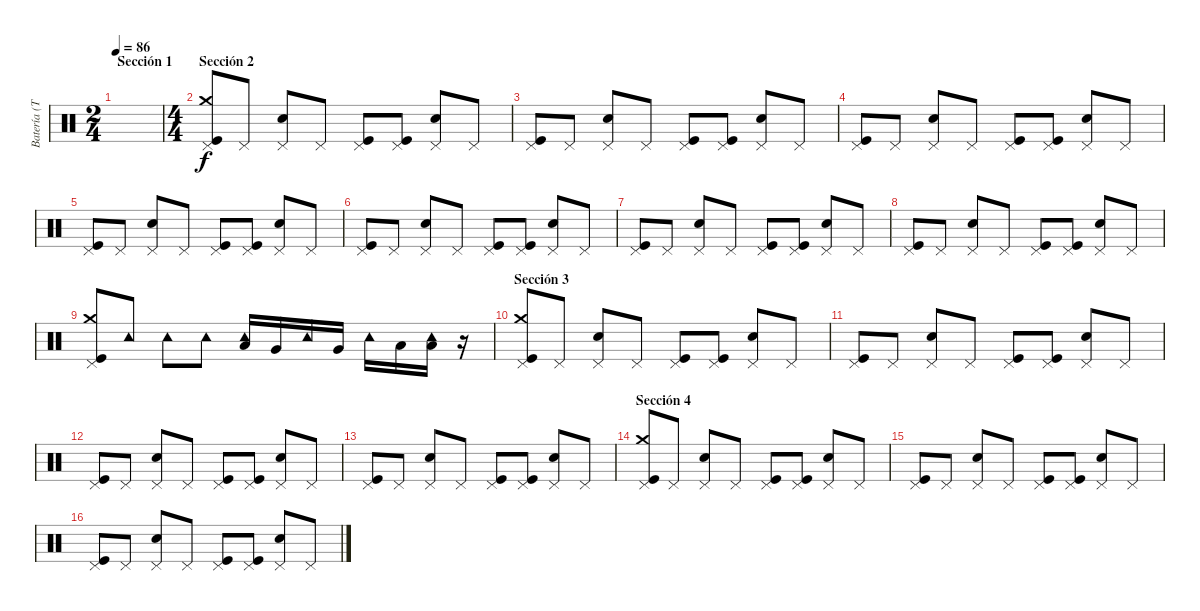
\track ("Batería (Toño)" "Batería (T") {instrument percussion}
\staff {score}
\articulation defaults
\ts (2 4)
\section ("" "Sección 1")
\tempo 86
\clef neutral
\ks c
|
\ts (4 4)
\section ("" "Sección 2")
("Pedal Hi-Hat (hit)" "Crash medium (hit)" "Kick (hit)").8 "Pedal Hi-Hat (hit)".8 ("Pedal Hi-Hat (hit)" "Electric Snare (hit)").8 "Pedal Hi-Hat (hit)".8 ("Pedal Hi-Hat (hit)" "Kick (hit)").8 ("Pedal Hi-Hat (hit)" "Kick (hit)").8 ("Pedal Hi-Hat (hit)" "Electric Snare (hit)").8 "Pedal Hi-Hat (hit)".8 |
("Pedal Hi-Hat (hit)" "Kick (hit)").8 "Pedal Hi-Hat (hit)".8 ("Pedal Hi-Hat (hit)" "Electric Snare (hit)").8 "Pedal Hi-Hat (hit)".8 ("Pedal Hi-Hat (hit)" "Kick (hit)").8 ("Pedal Hi-Hat (hit)" "Kick (hit)").8 ("Pedal Hi-Hat (hit)" "Electric Snare (hit)").8 "Pedal Hi-Hat (hit)".8 |
("Pedal Hi-Hat (hit)" "Kick (hit)").8 "Pedal Hi-Hat (hit)".8 ("Pedal Hi-Hat (hit)" "Electric Snare (hit)").8 "Pedal Hi-Hat (hit)".8 ("Pedal Hi-Hat (hit)" "Kick (hit)").8 ("Pedal Hi-Hat (hit)" "Kick (hit)").8 ("Pedal Hi-Hat (hit)" "Electric Snare (hit)").8 "Pedal Hi-Hat (hit)".8 |
("Pedal Hi-Hat (hit)" "Kick (hit)").8 "Pedal Hi-Hat (hit)".8 ("Pedal Hi-Hat (hit)" "Electric Snare (hit)").8 "Pedal Hi-Hat (hit)".8 ("Pedal Hi-Hat (hit)" "Kick (hit)").8 ("Pedal Hi-Hat (hit)" "Kick (hit)").8 ("Pedal Hi-Hat (hit)" "Electric Snare (hit)").8 "Pedal Hi-Hat (hit)".8 |
("Pedal Hi-Hat (hit)" "Kick (hit)").8 "Pedal Hi-Hat (hit)".8 ("Pedal Hi-Hat (hit)" "Electric Snare (hit)").8 "Pedal Hi-Hat (hit)".8 ("Pedal Hi-Hat (hit)" "Kick (hit)").8 ("Pedal Hi-Hat (hit)" "Kick (hit)").8 ("Pedal Hi-Hat (hit)" "Electric Snare (hit)").8 "Pedal Hi-Hat (hit)".8 |
("Pedal Hi-Hat (hit)" "Kick (hit)").8 "Pedal Hi-Hat (hit)".8 ("Pedal Hi-Hat (hit)" "Electric Snare (hit)").8 "Pedal Hi-Hat (hit)".8 ("Pedal Hi-Hat (hit)" "Kick (hit)").8 ("Pedal Hi-Hat (hit)" "Kick (hit)").8 ("Pedal Hi-Hat (hit)" "Electric Snare (hit)").8 "Pedal Hi-Hat (hit)".8 |
("Pedal Hi-Hat (hit)" "Kick (hit)").8 "Pedal Hi-Hat (hit)".8 ("Pedal Hi-Hat (hit)" "Electric Snare (hit)").8 "Pedal Hi-Hat (hit)".8 ("Pedal Hi-Hat (hit)" "Kick (hit)").8 ("Pedal Hi-Hat (hit)" "Kick (hit)").8 ("Pedal Hi-Hat (hit)" "Electric Snare (hit)").8 "Pedal Hi-Hat (hit)".8 |
("Pedal Hi-Hat (hit)" "Crash medium (hit)" "Kick (hit)").8 "Tambourine (hit)".8 "Tambourine (hit)".8 "Tambourine (hit)".8 ("Tambourine (hit)" "Low Tom (hit)").16 "Very Low Tom (hit)".16 "Tambourine (hit)".16 "Very Low Tom (hit)".16 "Tambourine (hit)".16 "Low Floor Tom (hit)".16 ("Tambourine (hit)" "Low Floor Tom (hit)").16 r.16 |
\section ("" "Sección 3")
("Pedal Hi-Hat (hit)" "Crash medium (hit)" "Kick (hit)").8 "Pedal Hi-Hat (hit)".8 ("Pedal Hi-Hat (hit)" "Electric Snare (hit)").8 "Pedal Hi-Hat (hit)".8 ("Pedal Hi-Hat (hit)" "Kick (hit)").8 ("Pedal Hi-Hat (hit)" "Kick (hit)").8 ("Pedal Hi-Hat (hit)" "Electric Snare (hit)").8 "Pedal Hi-Hat (hit)".8 |
("Pedal Hi-Hat (hit)" "Kick (hit)").8 "Pedal Hi-Hat (hit)".8 ("Pedal Hi-Hat (hit)" "Electric Snare (hit)").8 "Pedal Hi-Hat (hit)".8 ("Pedal Hi-Hat (hit)" "Kick (hit)").8 ("Pedal Hi-Hat (hit)" "Kick (hit)").8 ("Pedal Hi-Hat (hit)" "Electric Snare (hit)").8 "Pedal Hi-Hat (hit)".8 |
("Pedal Hi-Hat (hit)" "Kick (hit)").8 "Pedal Hi-Hat (hit)".8 ("Pedal Hi-Hat (hit)" "Electric Snare (hit)").8 "Pedal Hi-Hat (hit)".8 ("Pedal Hi-Hat (hit)" "Kick (hit)").8 ("Pedal Hi-Hat (hit)" "Kick (hit)").8 ("Pedal Hi-Hat (hit)" "Electric Snare (hit)").8 "Pedal Hi-Hat (hit)".8 |
("Pedal Hi-Hat (hit)" "Kick (hit)").8 "Pedal Hi-Hat (hit)".8 ("Pedal Hi-Hat (hit)" "Electric Snare (hit)").8 "Pedal Hi-Hat (hit)".8 ("Pedal Hi-Hat (hit)" "Kick (hit)").8 ("Pedal Hi-Hat (hit)" "Kick (hit)").8 ("Pedal Hi-Hat (hit)" "Electric Snare (hit)").8 "Pedal Hi-Hat (hit)".8 |
\section ("" "Sección 4")
("Pedal Hi-Hat (hit)" "Crash medium (hit)" "Kick (hit)").8 "Pedal Hi-Hat (hit)".8 ("Pedal Hi-Hat (hit)" "Electric Snare (hit)").8 "Pedal Hi-Hat (hit)".8 ("Pedal Hi-Hat (hit)" "Kick (hit)").8 ("Pedal Hi-Hat (hit)" "Kick (hit)").8 ("Pedal Hi-Hat (hit)" "Electric Snare (hit)").8 "Pedal Hi-Hat (hit)".8 |
("Pedal Hi-Hat (hit)" "Kick (hit)").8 "Pedal Hi-Hat (hit)".8 ("Pedal Hi-Hat (hit)" "Electric Snare (hit)").8 "Pedal Hi-Hat (hit)".8 ("Pedal Hi-Hat (hit)" "Kick (hit)").8 ("Pedal Hi-Hat (hit)" "Kick (hit)").8 ("Pedal Hi-Hat (hit)" "Electric Snare (hit)").8 "Pedal Hi-Hat (hit)".8 |
("Pedal Hi-Hat (hit)" "Kick (hit)").8 "Pedal Hi-Hat (hit)".8 ("Pedal Hi-Hat (hit)" "Electric Snare (hit)").8 "Pedal Hi-Hat (hit)".8 ("Pedal Hi-Hat (hit)" "Kick (hit)").8 ("Pedal Hi-Hat (hit)" "Kick (hit)").8 ("Pedal Hi-Hat (hit)" "Electric Snare (hit)").8 "Pedal Hi-Hat (hit)".8
